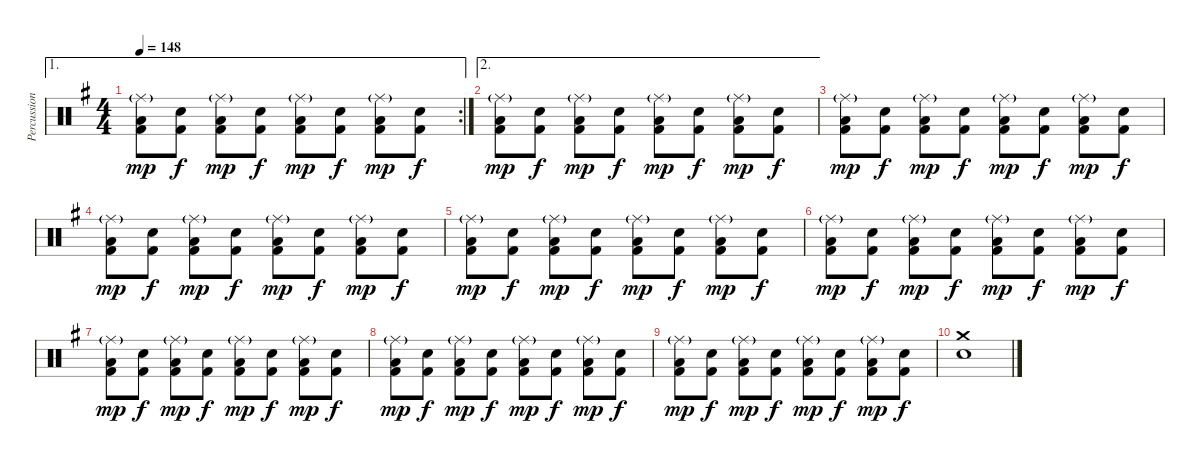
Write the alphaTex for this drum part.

\track ("Percussions" "Percussion") {instrument percussion}
\staff {score}
\articulation defaults
\ae 1
\rc 2
\ts (4 4)
\tempo 148
\clef neutral
\ks g
("Ride (middle)"{g} "Low Floor Tom (hit)" "Kick (hit) 2").8{dy mp} ("Electric Snare (hit)" "Kick (hit) 2").8{dy f} ("Ride (middle)"{g} "Low Floor Tom (hit)" "Kick (hit) 2").8{dy mp} ("Electric Snare (hit)" "Kick (hit) 2").8{dy f} ("Ride (middle)"{g} "Low Floor Tom (hit)" "Kick (hit) 2").8{dy mp} ("Electric Snare (hit)" "Kick (hit) 2").8{dy f} ("Ride (middle)"{g} "Low Floor Tom (hit)" "Kick (hit) 2").8{dy mp} ("Electric Snare (hit)" "Kick (hit) 2").8{dy f} |
\ae 2
("Ride (middle)"{g} "Low Floor Tom (hit)" "Kick (hit) 2").8{dy mp} ("Electric Snare (hit)" "Kick (hit) 2").8{dy f} ("Ride (middle)"{g} "Low Floor Tom (hit)" "Kick (hit) 2").8{dy mp} ("Electric Snare (hit)" "Kick (hit) 2").8{dy f} ("Ride (middle)"{g} "Low Floor Tom (hit)" "Kick (hit) 2").8{dy mp} ("Electric Snare (hit)" "Kick (hit) 2").8{dy f} ("Ride (middle)"{g} "Low Floor Tom (hit)" "Kick (hit) 2").8{dy mp} ("Electric Snare (hit)" "Kick (hit) 2").8{dy f} |
("Ride (middle)"{g} "Low Floor Tom (hit)" "Kick (hit) 2").8{dy mp} ("Electric Snare (hit)" "Kick (hit) 2").8{dy f} ("Ride (middle)"{g} "Low Floor Tom (hit)" "Kick (hit) 2").8{dy mp} ("Electric Snare (hit)" "Kick (hit) 2").8{dy f} ("Ride (middle)"{g} "Low Floor Tom (hit)" "Kick (hit) 2").8{dy mp} ("Electric Snare (hit)" "Kick (hit) 2").8{dy f} ("Ride (middle)"{g} "Low Floor Tom (hit)" "Kick (hit) 2").8{dy mp} ("Electric Snare (hit)" "Kick (hit) 2").8{dy f} |
("Ride (middle)"{g} "Low Floor Tom (hit)" "Kick (hit) 2").8{dy mp} ("Electric Snare (hit)" "Kick (hit) 2").8{dy f} ("Ride (middle)"{g} "Low Floor Tom (hit)" "Kick (hit) 2").8{dy mp} ("Electric Snare (hit)" "Kick (hit) 2").8{dy f} ("Ride (middle)"{g} "Low Floor Tom (hit)" "Kick (hit) 2").8{dy mp} ("Electric Snare (hit)" "Kick (hit) 2").8{dy f} ("Ride (middle)"{g} "Low Floor Tom (hit)" "Kick (hit) 2").8{dy mp} ("Electric Snare (hit)" "Kick (hit) 2").8{dy f} |
("Ride (middle)"{g} "Low Floor Tom (hit)" "Kick (hit) 2").8{dy mp} ("Electric Snare (hit)" "Kick (hit) 2").8{dy f} ("Ride (middle)"{g} "Low Floor Tom (hit)" "Kick (hit) 2").8{dy mp} ("Electric Snare (hit)" "Kick (hit) 2").8{dy f} ("Ride (middle)"{g} "Low Floor Tom (hit)" "Kick (hit) 2").8{dy mp} ("Electric Snare (hit)" "Kick (hit) 2").8{dy f} ("Ride (middle)"{g} "Low Floor Tom (hit)" "Kick (hit) 2").8{dy mp} ("Electric Snare (hit)" "Kick (hit) 2").8{dy f} |
("Ride (middle)"{g} "Low Floor Tom (hit)" "Kick (hit) 2").8{dy mp} ("Electric Snare (hit)" "Kick (hit) 2").8{dy f} ("Ride (middle)"{g} "Low Floor Tom (hit)" "Kick (hit) 2").8{dy mp} ("Electric Snare (hit)" "Kick (hit) 2").8{dy f} ("Ride (middle)"{g} "Low Floor Tom (hit)" "Kick (hit) 2").8{dy mp} ("Electric Snare (hit)" "Kick (hit) 2").8{dy f} ("Ride (middle)"{g} "Low Floor Tom (hit)" "Kick (hit) 2").8{dy mp} ("Electric Snare (hit)" "Kick (hit) 2").8{dy f} |
("Ride (middle)"{g} "Low Floor Tom (hit)" "Kick (hit) 2").8{dy mp} ("Electric Snare (hit)" "Kick (hit) 2").8{dy f} ("Ride (middle)"{g} "Low Floor Tom (hit)" "Kick (hit) 2").8{dy mp} ("Electric Snare (hit)" "Kick (hit) 2").8{dy f} ("Ride (middle)"{g} "Low Floor Tom (hit)" "Kick (hit) 2").8{dy mp} ("Electric Snare (hit)" "Kick (hit) 2").8{dy f} ("Ride (middle)"{g} "Low Floor Tom (hit)" "Kick (hit) 2").8{dy mp} ("Electric Snare (hit)" "Kick (hit) 2").8{dy f} |
("Ride (middle)"{g} "Low Floor Tom (hit)" "Kick (hit) 2").8{dy mp} ("Electric Snare (hit)" "Kick (hit) 2").8{dy f} ("Ride (middle)"{g} "Low Floor Tom (hit)" "Kick (hit) 2").8{dy mp} ("Electric Snare (hit)" "Kick (hit) 2").8{dy f} ("Ride (middle)"{g} "Low Floor Tom (hit)" "Kick (hit) 2").8{dy mp} ("Electric Snare (hit)" "Kick (hit) 2").8{dy f} ("Ride (middle)"{g} "Low Floor Tom (hit)" "Kick (hit) 2").8{dy mp} ("Electric Snare (hit)" "Kick (hit) 2").8{dy f} |
("Ride (middle)"{g} "Low Floor Tom (hit)" "Kick (hit) 2").8{dy mp} ("Electric Snare (hit)" "Kick (hit) 2").8{dy f} ("Ride (middle)"{g} "Low Floor Tom (hit)" "Kick (hit) 2").8{dy mp} ("Electric Snare (hit)" "Kick (hit) 2").8{dy f} ("Ride (middle)"{g} "Low Floor Tom (hit)" "Kick (hit) 2").8{dy mp} ("Electric Snare (hit)" "Kick (hit) 2").8{dy f} ("Ride (middle)"{g} "Low Floor Tom (hit)" "Kick (hit) 2").8{dy mp} ("Electric Snare (hit)" "Kick (hit) 2").8{dy f} |
("Crash medium (hit)" "Electric Snare (hit)").1
